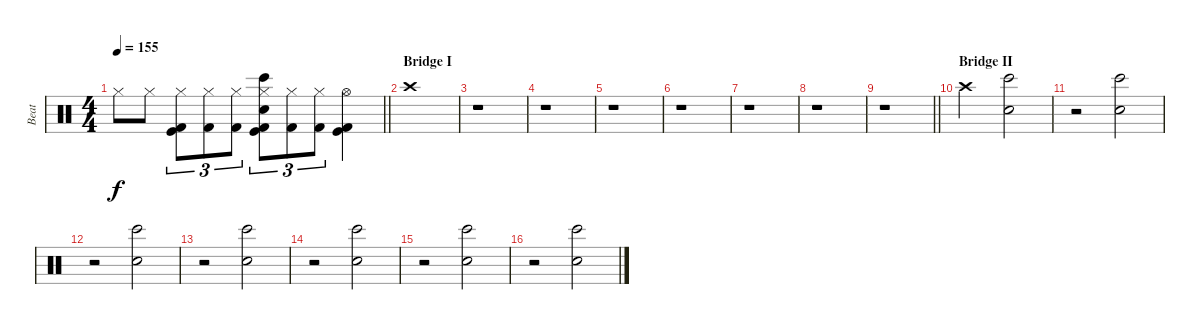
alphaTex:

\track ("Beat" "Beat") {instrument percussion}
\staff {score}
\articulation defaults
\ts (4 4)
\tempo 155
\clef neutral
\barLineRight lightlight
\ks c "Hi-Hat (closed)".8{dy f} "Hi-Hat (closed)".8
("Hi-Hat (closed)" "Kick (hit)" "Kick (hit) 2").8{tu (3 2)} ("Hi-Hat (closed)" "Kick (hit) 2").8{tu (3 2)} ("Hi-Hat (closed)" "Kick (hit) 2").8{tu (3 2)} ("Hi-Hat (closed)" "Hand Clap (hit)" "Bongo High (hit)" "Kick (hit)" "Kick (hit) 2").8{tu (3 2)} ("Hi-Hat (closed)" "Kick (hit) 2").8{tu (3 2)} ("Hi-Hat (closed)" "Kick (hit) 2").8{tu (3 2)} ("Hi-Hat (open)" "Kick (hit)" "Kick (hit) 2").4 |
\section ("" "Bridge I")
"Crash high (hit)".1 |
r.1 |
r.1 |
r.1 |
r.1 |
r.1 |
r.1 |
\barLineRight lightlight
r.1 |
\section ("" "Bridge II")
"Crash high (hit)".2 ("Hand Clap (hit)" "Bongo High (hit)").2 |
r.2 ("Hand Clap (hit)" "Bongo High (hit)").2 |
r.2 ("Hand Clap (hit)" "Bongo High (hit)").2 |
r.2 ("Hand Clap (hit)" "Bongo High (hit)").2 |
r.2 ("Hand Clap (hit)" "Bongo High (hit)").2 |
r.2 ("Hand Clap (hit)" "Bongo High (hit)").2 |
r.2 ("Hand Clap (hit)" "Bongo High (hit)").2
